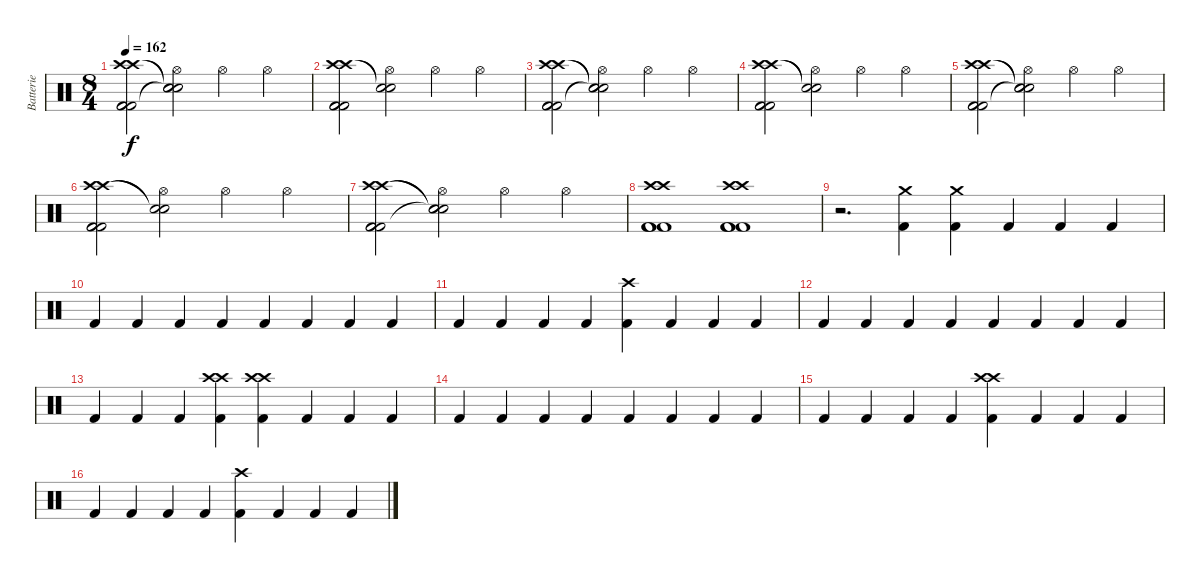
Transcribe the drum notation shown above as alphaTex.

\track ("Batterie" "Batterie") {instrument percussion}
\staff {score}
\articulation defaults
\ts (8 4)
\tempo 162
\clef neutral
\ks c
("Crash high (hit)" "Crash high (hit)" "Kick (hit) 2" "Kick (hit) 2" "Kick (hit) 2").2{dy f} ("Snare (hit)"{t} "Snare (hit)"{t} "Snare (hit)"{t} "Hi-Hat (open)").2 "Hi-Hat (open)".2 "Hi-Hat (open)".2 |
("Crash high (hit)" "Crash high (hit)" "Kick (hit) 2" "Kick (hit) 2" "Kick (hit) 2").2 ("Snare (hit)"{t} "Snare (hit)"{t} "Hi-Hat (open)").2 "Hi-Hat (open)".2 "Hi-Hat (open)".2 |
("Crash high (hit)" "Crash high (hit)" "Kick (hit) 2" "Kick (hit) 2" "Kick (hit) 2").2 ("Snare (hit)"{t} "Snare (hit)"{t} "Snare (hit)"{t} "Hi-Hat (open)").2 "Hi-Hat (open)".2 "Hi-Hat (open)".2 |
("Crash high (hit)" "Crash high (hit)" "Kick (hit) 2" "Kick (hit) 2" "Kick (hit) 2").2 ("Snare (hit)"{t} "Snare (hit)"{t} "Hi-Hat (open)").2 "Hi-Hat (open)".2 "Hi-Hat (open)".2 |
("Crash high (hit)" "Crash high (hit)" "Kick (hit) 2" "Kick (hit) 2" "Kick (hit) 2").2 ("Snare (hit)"{t} "Snare (hit)"{t} "Snare (hit)"{t} "Hi-Hat (open)").2 "Hi-Hat (open)".2 "Hi-Hat (open)".2 |
("Crash high (hit)" "Crash high (hit)" "Kick (hit) 2" "Kick (hit) 2" "Kick (hit) 2").2 ("Snare (hit)"{t} "Snare (hit)"{t} "Hi-Hat (open)").2 "Hi-Hat (open)".2 "Hi-Hat (open)".2 |
("Crash high (hit)" "Crash high (hit)" "Kick (hit) 2" "Kick (hit) 2" "Kick (hit) 2").2 ("Snare (hit)"{t} "Snare (hit)"{t} "Snare (hit)"{t} "Hi-Hat (open)").2 "Hi-Hat (open)".2 "Hi-Hat (open)".2 |
("Crash high (hit)" "Crash high (hit)" "Kick (hit) 2" "Kick (hit) 2" "Kick (hit) 2").1 ("Crash high (hit)" "Crash high (hit)" "Kick (hit) 2" "Kick (hit) 2" "Kick (hit) 2").1 |
r.2{d} ("Crash medium (hit)" "Kick (hit) 2").4 ("Crash medium (hit)" "Kick (hit) 2").4 "Kick (hit) 2".4 "Kick (hit) 2".4 "Kick (hit) 2".4 |
"Kick (hit) 2".4 "Kick (hit) 2".4 "Kick (hit) 2".4 "Kick (hit) 2".4 "Kick (hit) 2".4 "Kick (hit) 2".4 "Kick (hit) 2".4 "Kick (hit) 2".4 |
"Kick (hit) 2".4 "Kick (hit) 2".4 "Kick (hit) 2".4 "Kick (hit) 2".4 ("Crash high (hit)" "Kick (hit) 2").4 "Kick (hit) 2".4 "Kick (hit) 2".4 "Kick (hit) 2".4 |
"Kick (hit) 2".4 "Kick (hit) 2".4 "Kick (hit) 2".4 "Kick (hit) 2".4 "Kick (hit) 2".4 "Kick (hit) 2".4 "Kick (hit) 2".4 "Kick (hit) 2".4 |
"Kick (hit) 2".4 "Kick (hit) 2".4 "Kick (hit) 2".4 ("Crash high (hit)" "Crash high (hit)" "Kick (hit) 2").4 ("Crash high (hit)" "Crash high (hit)" "Kick (hit) 2").4 "Kick (hit) 2".4 "Kick (hit) 2".4 "Kick (hit) 2".4 |
"Kick (hit) 2".4 "Kick (hit) 2".4 "Kick (hit) 2".4 "Kick (hit) 2".4 "Kick (hit) 2".4 "Kick (hit) 2".4 "Kick (hit) 2".4 "Kick (hit) 2".4 |
"Kick (hit) 2".4 "Kick (hit) 2".4 "Kick (hit) 2".4 "Kick (hit) 2".4 ("Crash high (hit)" "Crash high (hit)" "Kick (hit) 2").4 "Kick (hit) 2".4 "Kick (hit) 2".4 "Kick (hit) 2".4 |
"Kick (hit) 2".4 "Kick (hit) 2".4 "Kick (hit) 2".4 "Kick (hit) 2".4 ("Crash high (hit)" "Kick (hit) 2").4 "Kick (hit) 2".4 "Kick (hit) 2".4 "Kick (hit) 2".4
